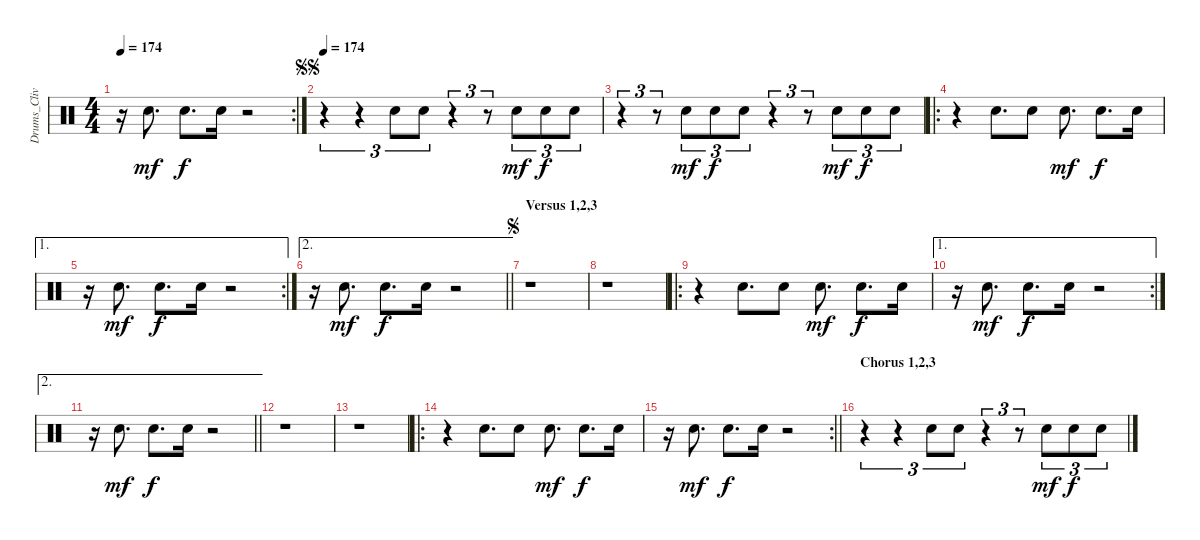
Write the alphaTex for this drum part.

\track ("Drums_CliveBurr" "Drums_Cliv") {instrument percussion}
\staff {score}
\articulation defaults
\rc 2
\ts (4 4)
\tempo 174
\clef neutral
\ks c
r.16{dy f} "Snare (hit) 2".8{d dy mf} "Snare (hit) 2".8{d dy f} "Snare (hit) 2".16 r.2 |
\jump segnosegno
\tempo 174
r.4{tu (3 2)} r.4{tu (3 2)} "Snare (hit) 2".8{tu (3 2)} "Snare (hit) 2".8{tu (3 2)} r.4{tu (3 2)} r.8{tu (3 2)} "Snare (hit) 2".8{tu (3 2) dy mf} "Snare (hit) 2".8{tu (3 2) dy f} "Snare (hit) 2".8{tu (3 2)} |
r.4{tu (3 2)} r.8{tu (3 2)} "Snare (hit) 2".8{tu (3 2) dy mf} "Snare (hit) 2".8{tu (3 2) dy f} "Snare (hit) 2".8{tu (3 2)} r.4{tu (3 2)} r.8{tu (3 2)} "Snare (hit) 2".8{tu (3 2) dy mf} "Snare (hit) 2".8{tu (3 2) dy f} "Snare (hit) 2".8{tu (3 2)} |
\ro
r.4 "Snare (hit) 2".8{d} "Snare (hit) 2".8 "Snare (hit) 2".8{d dy mf} "Snare (hit) 2".8{d dy f} "Snare (hit) 2".16 |
\ae 1
\rc 2
r.16 "Snare (hit) 2".8{d dy mf} "Snare (hit) 2".8{d dy f} "Snare (hit) 2".16 r.2 |
\ae 2
\barLineRight lightlight
r.16 "Snare (hit) 2".8{d dy mf} "Snare (hit) 2".8{d dy f} "Snare (hit) 2".16 r.2 |
\section ("" "Versus 1,2,3")
\jump segno
r.1 |
r.1 |
\ro
r.4 "Snare (hit) 2".8{d} "Snare (hit) 2".8 "Snare (hit) 2".8{d dy mf} "Snare (hit) 2".8{d dy f} "Snare (hit) 2".16 |
\ae 1
\rc 2
r.16 "Snare (hit) 2".8{d dy mf} "Snare (hit) 2".8{d dy f} "Snare (hit) 2".16 r.2 |
\ae 2
\barLineRight lightlight
r.16 "Snare (hit) 2".8{d dy mf} "Snare (hit) 2".8{d dy f} "Snare (hit) 2".16 r.2 |
r.1 |
r.1 |
\ro
r.4 "Snare (hit) 2".8{d} "Snare (hit) 2".8 "Snare (hit) 2".8{d dy mf} "Snare (hit) 2".8{d dy f} "Snare (hit) 2".16 |
\rc 2
\barLineRight lightlight
r.16 "Snare (hit) 2".8{d dy mf} "Snare (hit) 2".8{d dy f} "Snare (hit) 2".16 r.2 |
\section ("" "Chorus 1,2,3")
r.4{tu (3 2)} r.4{tu (3 2)} "Snare (hit) 2".8{tu (3 2)} "Snare (hit) 2".8{tu (3 2)} r.4{tu (3 2)} r.8{tu (3 2)} "Snare (hit) 2".8{tu (3 2) dy mf} "Snare (hit) 2".8{tu (3 2) dy f} "Snare (hit) 2".8{tu (3 2)}
